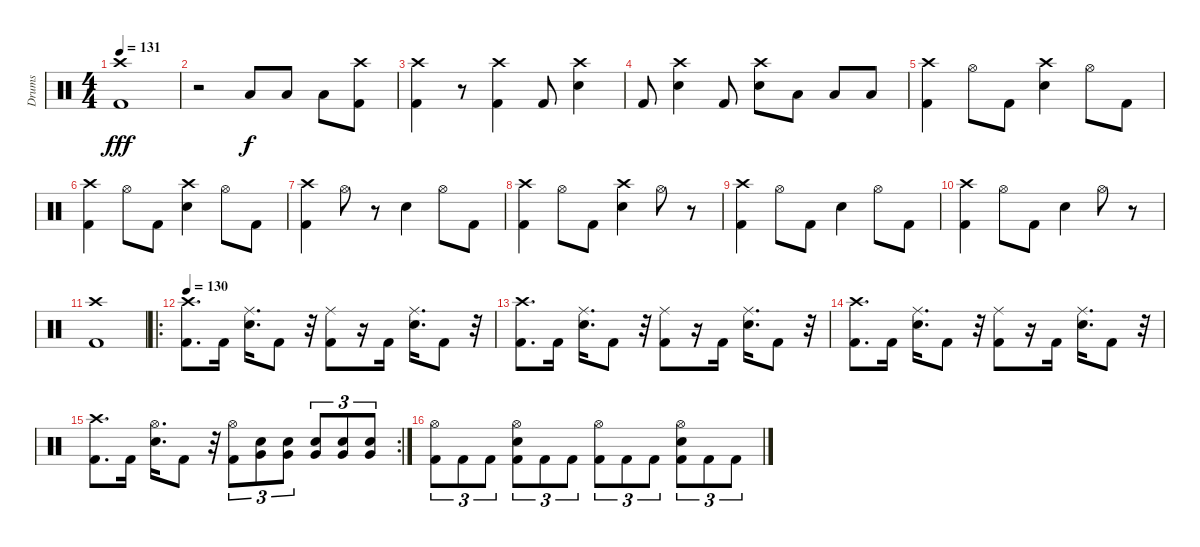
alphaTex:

\track ("Drums" "Drums") {instrument percussion}
\staff {score}
\articulation defaults
\ts (4 4)
\tempo 131
\clef neutral
\ks c
("Crash high (hit)" "Kick (hit) 2").1{dy fff} |
r.2 "Low Floor Tom (hit)".8{dy f volume 7} "Low Floor Tom (hit)".8{volume 10} "Low Floor Tom (hit)".8{volume 14} ("Crash high (hit)" "Kick (hit) 2").8 |
("Crash high (hit)" "Kick (hit) 2").4 r.8 ("Crash high (hit)" "Kick (hit) 2").4 "Kick (hit) 2".8 ("Crash high (hit)" "Snare (hit) 2").4 |
"Kick (hit) 2".8 ("Crash high (hit)" "Snare (hit) 2").4 "Kick (hit) 2".8 ("Crash high (hit)" "Snare (hit) 2").8 "Low Tom (hit)".8 "Low Tom (hit)".8 "Low Floor Tom (hit)".8 |
("Crash high (hit)" "Kick (hit) 2").4 "Hi-Hat (open)".8 "Kick (hit) 2".8 ("Crash high (hit)" "Snare (hit) 2").4 "Hi-Hat (open)".8 "Kick (hit) 2".8 |
("Crash high (hit)" "Kick (hit) 2").4 "Hi-Hat (open)".8 "Kick (hit) 2".8 ("Crash high (hit)" "Snare (hit) 2").4 "Hi-Hat (open)".8 "Kick (hit) 2".8 |
("Crash high (hit)" "Kick (hit) 2").4 "Hi-Hat (open)".8 r.8 "Snare (hit) 2".4 "Hi-Hat (open)".8 "Kick (hit) 2".8 |
("Crash high (hit)" "Kick (hit) 2").4 "Hi-Hat (open)".8 "Kick (hit) 2".8 ("Crash high (hit)" "Snare (hit) 2").4 "Hi-Hat (open)".8 r.8 |
("Crash high (hit)" "Kick (hit) 2").4 "Hi-Hat (open)".8 "Kick (hit) 2".8 "Snare (hit) 2".4 "Hi-Hat (open)".8 "Kick (hit) 2".8 |
("Crash high (hit)" "Kick (hit) 2").4 "Hi-Hat (open)".8 "Kick (hit) 2".8 "Snare (hit) 2".4 "Hi-Hat (open)".8 r.8 |
("Crash high (hit)" "Kick (hit) 2").1 |
\ro
\tempo 130
("Crash high (hit)" "Kick (hit) 2").8{d} "Kick (hit) 2".16 ("Ride (middle)" "Snare (hit) 2").16{d} "Kick (hit) 2".8 r.32 ("Ride (middle)" "Kick (hit) 2").8 r.16 "Kick (hit) 2".16 ("Ride (middle)" "Snare (hit) 2").16{d} "Kick (hit) 2".8 r.32 |
("Crash high (hit)" "Kick (hit) 2").8{d} "Kick (hit) 2".16 ("Ride (middle)" "Snare (hit) 2").16{d} "Kick (hit) 2".8 r.32 ("Ride (middle)" "Kick (hit) 2").8 r.16 "Kick (hit) 2".16 ("Ride (middle)" "Snare (hit) 2").16{d} "Kick (hit) 2".8 r.32 |
("Crash high (hit)" "Kick (hit) 2").8{d} "Kick (hit) 2".16 ("Ride (middle)" "Snare (hit) 2").16{d} "Kick (hit) 2".8 r.32 ("Ride (middle)" "Kick (hit) 2").8 r.16 "Kick (hit) 2".16 ("Ride (middle)" "Snare (hit) 2").16{d} "Kick (hit) 2".8 r.32 |
\rc 2
("Crash high (hit)" "Kick (hit) 2").8{d} "Kick (hit) 2".16 ("Hi-Hat (open)" "Snare (hit) 2").16{d} "Kick (hit) 2".8 r.32 ("Hi-Hat (open)" "Kick (hit) 2").8{tu (3 2)} ("Snare (hit) 2" "Very Low Tom (hit)").8{tu (3 2)} ("Snare (hit) 2" "Very Low Tom (hit)").8{tu (3 2)} ("Snare (hit) 2" "Very Low Tom (hit)").8{tu (3 2)} ("Snare (hit) 2" "Very Low Tom (hit)").8{tu (3 2)} ("Snare (hit) 2" "Very Low Tom (hit)").8{tu (3 2)} |
("Hi-Hat (open)" "Kick (hit) 2").8{tu (3 2)} "Kick (hit) 2".8{tu (3 2)} "Kick (hit) 2".8{tu (3 2)} ("Hi-Hat (open)" "Snare (hit) 2" "Kick (hit) 2").8{tu (3 2)} "Kick (hit) 2".8{tu (3 2)} "Kick (hit) 2".8{tu (3 2)} ("Hi-Hat (open)" "Kick (hit) 2").8{tu (3 2)} "Kick (hit) 2".8{tu (3 2)} "Kick (hit) 2".8{tu (3 2)} ("Hi-Hat (open)" "Snare (hit) 2" "Kick (hit) 2").8{tu (3 2)} "Kick (hit) 2".8{tu (3 2)} "Kick (hit) 2".8{tu (3 2)}
